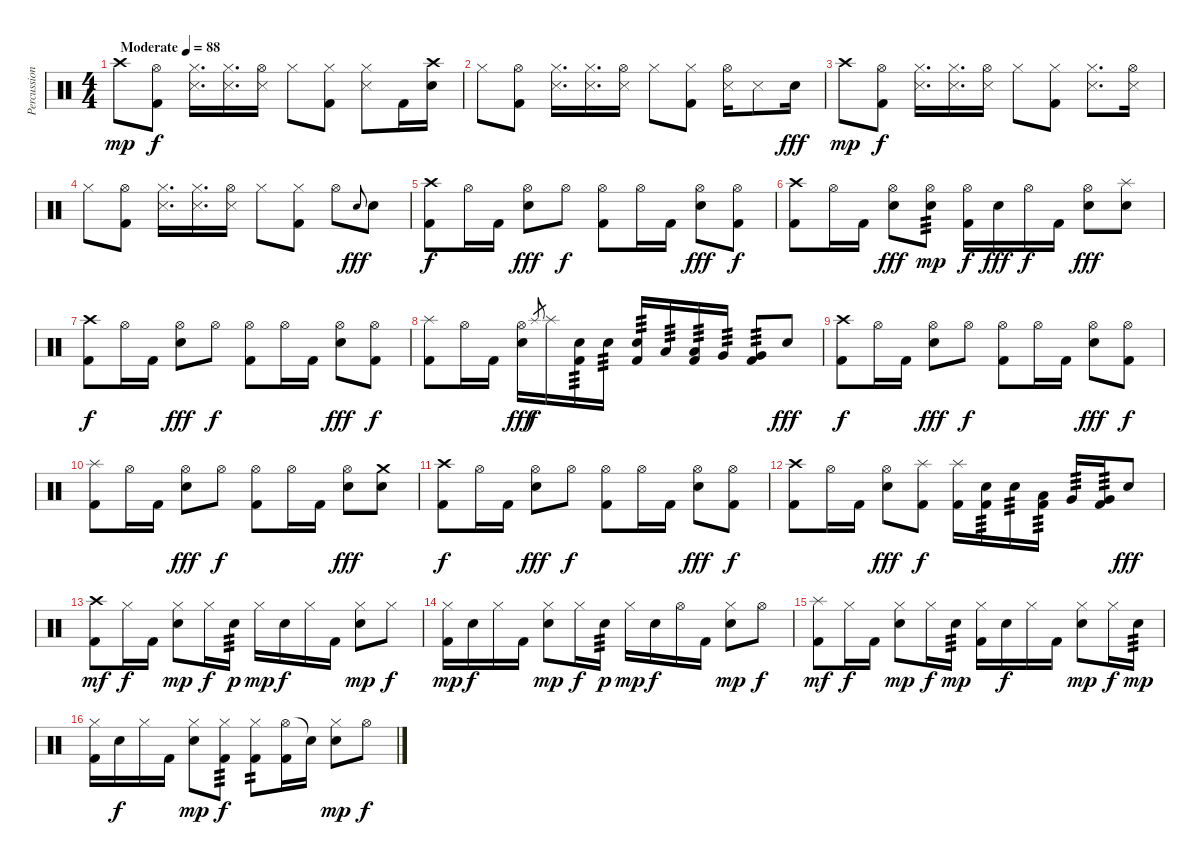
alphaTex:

\track ("Percussion" "Percussion") {instrument percussion}
\staff {score}
\articulation defaults
\ts (4 4)
\tempo (88 "Moderate")
\clef neutral
\ks c "Crash high (hit)".8{dy mp}
("Hi-Hat (open)" "Kick (hit) 2").8{dy f} ("Hi-Hat (closed)" "Snare (side stick) 3").16{d} ("Hi-Hat (closed)" "Snare (side stick) 3").16{d} ("Hi-Hat (open)" "Snare (side stick) 3").16 "Hi-Hat (closed)".8 ("Hi-Hat (closed)" "Kick (hit) 2").8 ("Hi-Hat (closed)" "Snare (side stick) 3").8 "Kick (hit) 2".16 ("Crash high (hit)" "Electric Snare (hit)").16 |
"Hi-Hat (closed)".8 ("Hi-Hat (open)" "Kick (hit) 2").8 ("Hi-Hat (closed)" "Snare (side stick) 3").16{d} ("Hi-Hat (closed)" "Snare (side stick) 3").16{d} ("Hi-Hat (open)" "Snare (side stick) 3").16 "Hi-Hat (closed)".8 ("Hi-Hat (closed)" "Kick (hit) 2").8 ("Hi-Hat (open)" "Snare (side stick) 3").16 "Snare (side stick) 3".8 "Electric Snare (hit)".16{dy fff} |
"Crash high (hit)".8{dy mp} ("Hi-Hat (open)" "Kick (hit) 2").8{dy f} ("Hi-Hat (closed)" "Snare (side stick) 3").16{d} ("Hi-Hat (closed)" "Snare (side stick) 3").16{d} ("Hi-Hat (open)" "Snare (side stick) 3").16 "Hi-Hat (closed)".8 ("Hi-Hat (closed)" "Kick (hit) 2").8 ("Hi-Hat (closed)" "Snare (side stick) 3").8{d} ("Hi-Hat (open)" "Snare (side stick) 3").16 |
"Hi-Hat (closed)".8 ("Hi-Hat (open)" "Kick (hit) 2").8 ("Hi-Hat (closed)" "Snare (side stick) 3").16{d} ("Hi-Hat (closed)" "Snare (side stick) 3").16{d} ("Hi-Hat (open)" "Snare (side stick) 3").16 "Hi-Hat (closed)".8 ("Hi-Hat (closed)" "Kick (hit) 2").8 "Hi-Hat (open)".8 "Electric Snare (hit)".8{gr onbeat dy fff} "Electric Snare (hit)".8 |
("Crash high (hit)" "Kick (hit) 2").8{dy f} "Hi-Hat (open)".16 "Kick (hit) 2".16 ("Hi-Hat (open)" "Electric Snare (hit)").8{dy fff} "Hi-Hat (open)".8{dy f} ("Hi-Hat (open)" "Kick (hit) 2").8 "Hi-Hat (open)".16 "Kick (hit) 2".16 ("Hi-Hat (open)" "Electric Snare (hit)").8{dy fff} ("Hi-Hat (open)" "Kick (hit) 2").8{dy f} |
("Crash high (hit)" "Kick (hit) 2").8 "Hi-Hat (open)".16 "Kick (hit) 2".16 ("Hi-Hat (open)" "Electric Snare (hit)").8{dy fff} ("Hi-Hat (open)" "Electric Snare (hit)").8{tp 3 dy mp} ("Hi-Hat (open)" "Kick (hit) 2").16{dy f} "Electric Snare (hit)".16{dy fff} "Hi-Hat (open)".16{dy f} "Kick (hit) 2".16 ("Hi-Hat (open)" "Electric Snare (hit)").8{dy fff} ("Splash (hit)" "Electric Snare (hit)").8 |
("Crash high (hit)" "Kick (hit) 2").8{dy f} "Hi-Hat (open)".16 "Kick (hit) 2".16 ("Hi-Hat (open)" "Electric Snare (hit)").8{dy fff} "Hi-Hat (open)".8{dy f} ("Hi-Hat (open)" "Kick (hit) 2").8 "Hi-Hat (open)".16 "Kick (hit) 2".16 ("Hi-Hat (open)" "Electric Snare (hit)").8{dy fff} ("Hi-Hat (open)" "Kick (hit) 2").8{dy f} |
("Splash (hit)" "Kick (hit) 2").8 "Hi-Hat (open)".16 "Kick (hit) 2".16 ("Hi-Hat (open)" "Electric Snare (hit)").16{dy fff} "Splash (hit)".8{gr dy f} "Splash (hit)".16 ("Electric Snare (hit)" "Kick (hit) 2").16{tp 3} "Electric Snare (hit)".16{tp 3} ("Electric Snare (hit)" "Kick (hit) 2").16{tp 3} "Low Tom (hit)".16{tp 3} ("Low Tom (hit)" "Kick (hit) 2").16{tp 3} "Very Low Tom (hit)".16{tp 3} ("Very Low Tom (hit)" "Kick (hit) 2").8{tp 3} "Electric Snare (hit)".8{dy fff} |
("Crash high (hit)" "Kick (hit) 2").8{dy f} "Hi-Hat (open)".16 "Kick (hit) 2".16 ("Hi-Hat (open)" "Electric Snare (hit)").8{dy fff} "Hi-Hat (open)".8{dy f} ("Hi-Hat (open)" "Kick (hit) 2").8 "Hi-Hat (open)".16 "Kick (hit) 2".16 ("Hi-Hat (open)" "Electric Snare (hit)").8{dy fff} ("Hi-Hat (open)" "Kick (hit) 2").8{dy f} |
("Splash (hit)" "Kick (hit) 2").8 "Hi-Hat (open)".16 "Kick (hit) 2".16 ("Hi-Hat (open)" "Electric Snare (hit)").8{dy fff} "Hi-Hat (open)".8{dy f} ("Hi-Hat (open)" "Kick (hit) 2").8 "Hi-Hat (open)".16 "Kick (hit) 2".16 ("Hi-Hat (open)" "Electric Snare (hit)").8{dy fff} ("Crash medium (hit)" "Electric Snare (hit)").8 |
("Crash high (hit)" "Kick (hit) 2").8{dy f} "Hi-Hat (open)".16 "Kick (hit) 2".16 ("Hi-Hat (open)" "Electric Snare (hit)").8{dy fff} "Hi-Hat (open)".8{dy f} ("Hi-Hat (open)" "Kick (hit) 2").8 "Hi-Hat (open)".16 "Kick (hit) 2".16 ("Hi-Hat (open)" "Electric Snare (hit)").8{dy fff} ("Hi-Hat (open)" "Kick (hit) 2").8{dy f} |
("Crash high (hit)" "Kick (hit) 2").8 "Hi-Hat (open)".16 "Kick (hit) 2".16 ("Hi-Hat (open)" "Electric Snare (hit)").8{dy fff} ("Splash (hit)" "Kick (hit) 2").8{dy f} ("Splash (hit)" "Kick (hit) 2").16 ("Electric Snare (hit)" "Kick (hit) 2").16{tp 3} "Electric Snare (hit)".16{tp 3} ("Low Tom (hit)" "Kick (hit) 2").16{tp 3} "Very Low Tom (hit)".16{tp 3} ("Very Low Tom (hit)" "Kick (hit) 2").16{tp 3} "Electric Snare (hit)".8{dy fff} |
("Crash high (hit)" "Kick (hit) 2").8{dy mf} "Hi-Hat (closed)".16{dy f} "Kick (hit) 2".16 ("Hi-Hat (closed)" "Electric Snare (hit)").8{dy mp} "Hi-Hat (closed)".16{dy f} "Electric Snare (hit)".16{tp 3 dy p} "Hi-Hat (closed)".16{dy mp} "Electric Snare (hit)".16{dy f} "Hi-Hat (closed)".16 "Kick (hit) 2".16 ("Hi-Hat (closed)" "Electric Snare (hit)").8{dy mp} "Hi-Hat (closed)".8{dy f} |
("Hi-Hat (closed)" "Kick (hit) 2").16{dy mp} "Electric Snare (hit)".16{dy f} "Hi-Hat (closed)".16 "Kick (hit) 2".16 ("Hi-Hat (closed)" "Electric Snare (hit)").8{dy mp} "Hi-Hat (closed)".16{dy f} "Electric Snare (hit)".16{tp 3 dy p} "Hi-Hat (closed)".16{dy mp} "Electric Snare (hit)".16{dy f} "Hi-Hat (open)".16 "Kick (hit) 2".16 ("Hi-Hat (closed)" "Electric Snare (hit)").8{dy mp} "Hi-Hat (open)".8{dy f} |
("Splash (hit)" "Kick (hit) 2").8{dy mf} "Hi-Hat (closed)".16{dy f} "Kick (hit) 2".16 ("Hi-Hat (closed)" "Electric Snare (hit)").8{dy mp} "Hi-Hat (closed)".16{dy f} "Electric Snare (hit)".16{tp 3 dy mp} ("Hi-Hat (closed)" "Kick (hit) 2").16 "Electric Snare (hit)".16{dy f} "Hi-Hat (closed)".16 "Kick (hit) 2".16 ("Hi-Hat (closed)" "Electric Snare (hit)").8{dy mp} "Hi-Hat (closed)".16{dy f} "Electric Snare (hit)".16{tp 3 dy mp} |
("Hi-Hat (closed)" "Kick (hit) 2").16 "Electric Snare (hit)".16{dy f} "Hi-Hat (closed)".16 "Kick (hit) 2".16 ("Hi-Hat (closed)" "Electric Snare (hit)").8{dy mp} ("Hi-Hat (closed)" "Kick (hit) 2").8{tp 3 dy f} ("Hi-Hat (closed)" "Kick (hit) 2").8{tp 2} ("Hi-Hat (open)" "Kick (hit) 2").16 "Snare (hit)"{t}.16 ("Hi-Hat (closed)" "Electric Snare (hit)").8{dy mp} "Hi-Hat (open)".8{dy f}
